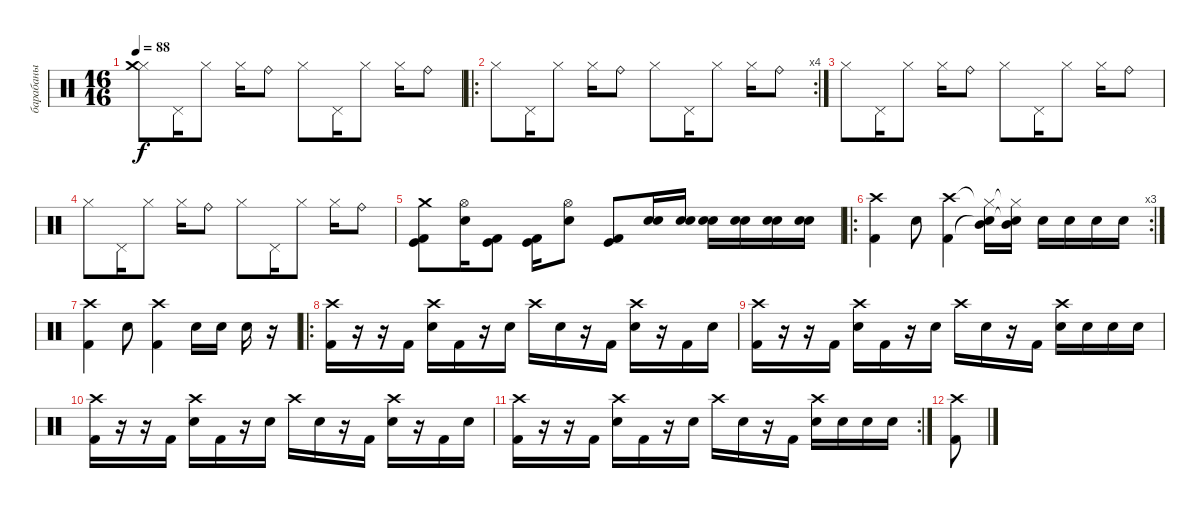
\track ("барабаны" "барабаны") {instrument percussion}
\staff {score}
\articulation defaults
\ts (16 16)
\tempo 88
\clef neutral
\ks c
("Hi-Hat (closed)" "Crash medium (hit)").8{dy f volume 13} "Pedal Hi-Hat (hit)".16 "Hi-Hat (closed)".8 "Hi-Hat (closed)".16 "Ride (bell)".8 "Hi-Hat (closed)".8 "Pedal Hi-Hat (hit)".16 "Hi-Hat (closed)".8 "Hi-Hat (closed)".16 "Ride (bell)".8 |
\ro
\rc 4 "Hi-Hat (closed)".8{volume 13} "Pedal Hi-Hat (hit)".16 "Hi-Hat (closed)".8 "Hi-Hat (closed)".16 "Ride (bell)".8 "Hi-Hat (closed)".8 "Pedal Hi-Hat (hit)".16 "Hi-Hat (closed)".8 "Hi-Hat (closed)".16 "Ride (bell)".8
|
"Hi-Hat (closed)".8{volume 13} "Pedal Hi-Hat (hit)".16 "Hi-Hat (closed)".8 "Hi-Hat (closed)".16 "Ride (bell)".8 "Hi-Hat (closed)".8 "Pedal Hi-Hat (hit)".16 "Hi-Hat (closed)".8 "Hi-Hat (closed)".16 "Ride (bell)".8 |
"Hi-Hat (closed)".8{volume 13} "Pedal Hi-Hat (hit)".16 "Hi-Hat (closed)".8 "Hi-Hat (closed)".16 "Ride (bell)".8 "Hi-Hat (closed)".8 "Pedal Hi-Hat (hit)".16 "Hi-Hat (closed)".8 "Hi-Hat (closed)".16 "Ride (bell)".8 |
("Crash medium (hit)" "Kick (hit) 2" "Kick (hit)").8 ("Hi-Hat (open)" "Electric Snare (hit)").16 ("Kick (hit)" "Kick (hit) 2").8 ("Kick (hit)" "Kick (hit) 2").16 ("Hi-Hat (open)" "Electric Snare (hit)").8 ("Kick (hit) 2" "Kick (hit)").8 ("Snare (hit) 2" "Electric Snare (hit)").16 ("Snare (hit) 2" "Electric Snare (hit)").16 ("Snare (hit) 2" "Electric Snare (hit)").16 ("Snare (hit) 2" "Electric Snare (hit)").16 ("Snare (hit) 2" "Electric Snare (hit)").16 ("Snare (hit) 2" "Electric Snare (hit)").16 |
\ro
\rc 3
("Crash high (hit)" "Kick (hit) 2").4 "Electric Snare (hit)".8 ("Crash high (hit)" "Kick (hit) 2").4 ("Hi-Hat (closed)"{t} "Snare (hit)"{t} "Mid Tom (hit)").16 ("Hi-Hat (closed)"{t} "Snare (hit)"{t} "Mid Tom (hit)").16 "Electric Snare (hit)".16 "Electric Snare (hit)".16 "Electric Snare (hit)".16 "Electric Snare (hit)".16 |
("Crash high (hit)" "Kick (hit) 2").4 "Electric Snare (hit)".8 ("Crash high (hit)" "Kick (hit) 2").4 "Electric Snare (hit)".16 "Electric Snare (hit)".16 "Electric Snare (hit)".16 r.16 |
\ro
("Crash high (hit)" "Kick (hit) 2").16{volume 16} r.16 r.16 "Kick (hit) 2".16 ("Crash high (hit)" "Electric Snare (hit)").16 "Kick (hit) 2".16 r.16 "Electric Snare (hit)".16 "Crash high (hit)".16 "Electric Snare (hit)".16 r.16 "Kick (hit) 2".16 ("Crash high (hit)" "Electric Snare (hit)").16 r.16 "Kick (hit) 2".16 "Electric Snare (hit)".16 |
("Crash high (hit)" "Kick (hit) 2").16 r.16 r.16 "Kick (hit) 2".16 ("Crash high (hit)" "Electric Snare (hit)").16 "Kick (hit) 2".16 r.16 "Electric Snare (hit)".16 "Crash high (hit)".16 "Electric Snare (hit)".16 r.16 "Kick (hit) 2".16 ("Crash high (hit)" "Electric Snare (hit)").16 "Electric Snare (hit)".16 "Electric Snare (hit)".16 "Electric Snare (hit)".16 |
("Crash high (hit)" "Kick (hit) 2").16 r.16 r.16 "Kick (hit) 2".16 ("Crash high (hit)" "Electric Snare (hit)").16 "Kick (hit) 2".16 r.16 "Electric Snare (hit)".16 "Crash high (hit)".16 "Electric Snare (hit)".16 r.16 "Kick (hit) 2".16 ("Crash high (hit)" "Electric Snare (hit)").16 r.16 "Kick (hit) 2".16 "Electric Snare (hit)".16 |
\rc 2
("Crash high (hit)" "Kick (hit) 2").16 r.16 r.16 "Kick (hit) 2".16 ("Crash high (hit)" "Electric Snare (hit)").16 "Kick (hit) 2".16 r.16 "Electric Snare (hit)".16 "Crash high (hit)".16 "Electric Snare (hit)".16 r.16 "Kick (hit) 2".16 ("Crash high (hit)" "Electric Snare (hit)").16 "Electric Snare (hit)".16 "Electric Snare (hit)".16 "Electric Snare (hit)".16 |
("Kick (hit) 2" "Crash high (hit)").8
